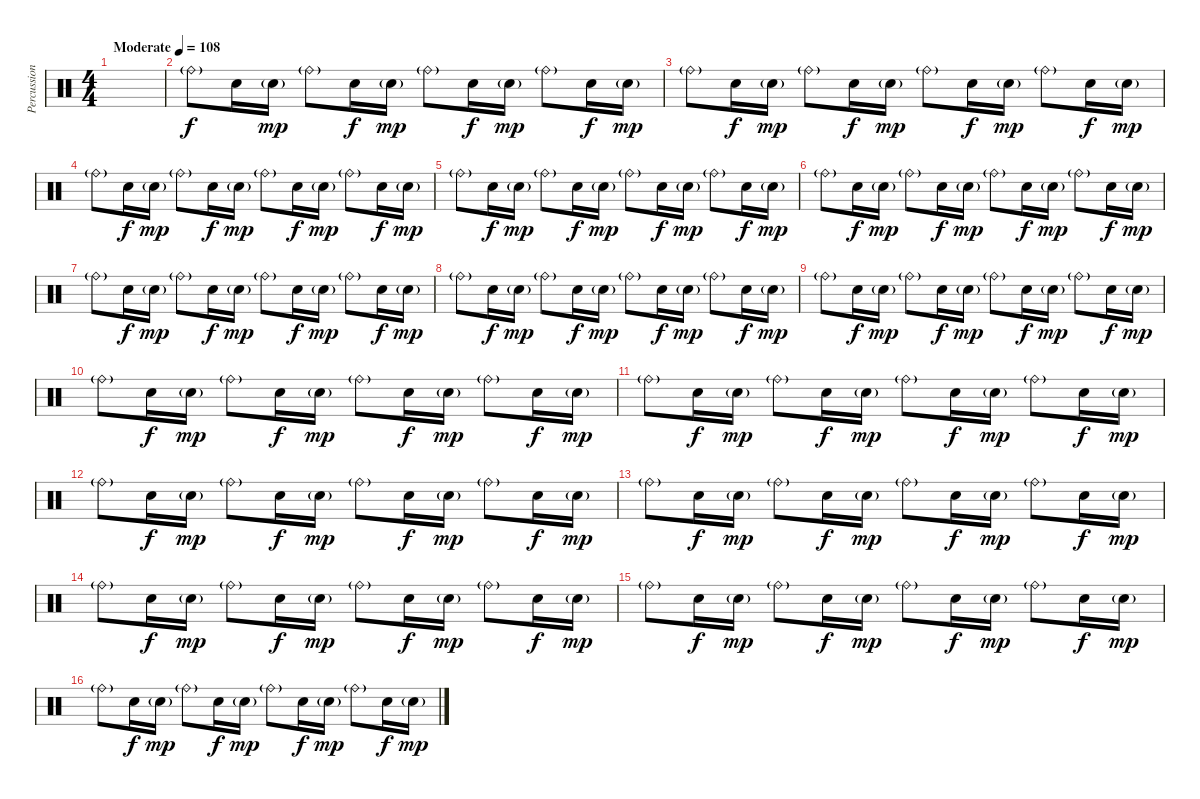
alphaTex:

\track ("Percussioni" "Percussion") {instrument percussion}
\staff {score}
\articulation defaults
\ts (4 4)
\tempo (108 "Moderate")
\clef neutral
\ks c
|
"Ride (bell)"{g}.8 "Snare (hit) 2".16{dy f} "Snare (hit) 2"{g}.16{dy mp} "Ride (bell)"{g}.8 "Snare (hit) 2".16{dy f} "Snare (hit) 2"{g}.16{dy mp} "Ride (bell)"{g}.8 "Snare (hit) 2".16{dy f} "Snare (hit) 2"{g}.16{dy mp} "Ride (bell)"{g}.8 "Snare (hit) 2".16{dy f} "Snare (hit) 2"{g}.16{dy mp} |
"Ride (bell)"{g}.8 "Snare (hit) 2".16{dy f} "Snare (hit) 2"{g}.16{dy mp} "Ride (bell)"{g}.8 "Snare (hit) 2".16{dy f} "Snare (hit) 2"{g}.16{dy mp} "Ride (bell)"{g}.8 "Snare (hit) 2".16{dy f} "Snare (hit) 2"{g}.16{dy mp} "Ride (bell)"{g}.8 "Snare (hit) 2".16{dy f} "Snare (hit) 2"{g}.16{dy mp} |
"Ride (bell)"{g}.8 "Snare (hit) 2".16{dy f} "Snare (hit) 2"{g}.16{dy mp} "Ride (bell)"{g}.8 "Snare (hit) 2".16{dy f} "Snare (hit) 2"{g}.16{dy mp} "Ride (bell)"{g}.8 "Snare (hit) 2".16{dy f} "Snare (hit) 2"{g}.16{dy mp} "Ride (bell)"{g}.8 "Snare (hit) 2".16{dy f} "Snare (hit) 2"{g}.16{dy mp} |
"Ride (bell)"{g}.8 "Snare (hit) 2".16{dy f} "Snare (hit) 2"{g}.16{dy mp} "Ride (bell)"{g}.8 "Snare (hit) 2".16{dy f} "Snare (hit) 2"{g}.16{dy mp} "Ride (bell)"{g}.8 "Snare (hit) 2".16{dy f} "Snare (hit) 2"{g}.16{dy mp} "Ride (bell)"{g}.8 "Snare (hit) 2".16{dy f} "Snare (hit) 2"{g}.16{dy mp} |
"Ride (bell)"{g}.8 "Snare (hit) 2".16{dy f} "Snare (hit) 2"{g}.16{dy mp} "Ride (bell)"{g}.8 "Snare (hit) 2".16{dy f} "Snare (hit) 2"{g}.16{dy mp} "Ride (bell)"{g}.8 "Snare (hit) 2".16{dy f} "Snare (hit) 2"{g}.16{dy mp} "Ride (bell)"{g}.8 "Snare (hit) 2".16{dy f} "Snare (hit) 2"{g}.16{dy mp} |
"Ride (bell)"{g}.8 "Snare (hit) 2".16{dy f} "Snare (hit) 2"{g}.16{dy mp} "Ride (bell)"{g}.8 "Snare (hit) 2".16{dy f} "Snare (hit) 2"{g}.16{dy mp} "Ride (bell)"{g}.8 "Snare (hit) 2".16{dy f} "Snare (hit) 2"{g}.16{dy mp} "Ride (bell)"{g}.8 "Snare (hit) 2".16{dy f} "Snare (hit) 2"{g}.16{dy mp} |
"Ride (bell)"{g}.8 "Snare (hit) 2".16{dy f} "Snare (hit) 2"{g}.16{dy mp} "Ride (bell)"{g}.8 "Snare (hit) 2".16{dy f} "Snare (hit) 2"{g}.16{dy mp} "Ride (bell)"{g}.8 "Snare (hit) 2".16{dy f} "Snare (hit) 2"{g}.16{dy mp} "Ride (bell)"{g}.8 "Snare (hit) 2".16{dy f} "Snare (hit) 2"{g}.16{dy mp} |
"Ride (bell)"{g}.8 "Snare (hit) 2".16{dy f} "Snare (hit) 2"{g}.16{dy mp} "Ride (bell)"{g}.8 "Snare (hit) 2".16{dy f} "Snare (hit) 2"{g}.16{dy mp} "Ride (bell)"{g}.8 "Snare (hit) 2".16{dy f} "Snare (hit) 2"{g}.16{dy mp} "Ride (bell)"{g}.8 "Snare (hit) 2".16{dy f} "Snare (hit) 2"{g}.16{dy mp} |
"Ride (bell)"{g}.8 "Snare (hit) 2".16{dy f} "Snare (hit) 2"{g}.16{dy mp} "Ride (bell)"{g}.8 "Snare (hit) 2".16{dy f} "Snare (hit) 2"{g}.16{dy mp} "Ride (bell)"{g}.8 "Snare (hit) 2".16{dy f} "Snare (hit) 2"{g}.16{dy mp} "Ride (bell)"{g}.8 "Snare (hit) 2".16{dy f} "Snare (hit) 2"{g}.16{dy mp} |
"Ride (bell)"{g}.8 "Snare (hit) 2".16{dy f} "Snare (hit) 2"{g}.16{dy mp} "Ride (bell)"{g}.8 "Snare (hit) 2".16{dy f} "Snare (hit) 2"{g}.16{dy mp} "Ride (bell)"{g}.8 "Snare (hit) 2".16{dy f} "Snare (hit) 2"{g}.16{dy mp} "Ride (bell)"{g}.8 "Snare (hit) 2".16{dy f} "Snare (hit) 2"{g}.16{dy mp} |
"Ride (bell)"{g}.8 "Snare (hit) 2".16{dy f} "Snare (hit) 2"{g}.16{dy mp} "Ride (bell)"{g}.8 "Snare (hit) 2".16{dy f} "Snare (hit) 2"{g}.16{dy mp} "Ride (bell)"{g}.8 "Snare (hit) 2".16{dy f} "Snare (hit) 2"{g}.16{dy mp} "Ride (bell)"{g}.8 "Snare (hit) 2".16{dy f} "Snare (hit) 2"{g}.16{dy mp} |
"Ride (bell)"{g}.8 "Snare (hit) 2".16{dy f} "Snare (hit) 2"{g}.16{dy mp} "Ride (bell)"{g}.8 "Snare (hit) 2".16{dy f} "Snare (hit) 2"{g}.16{dy mp} "Ride (bell)"{g}.8 "Snare (hit) 2".16{dy f} "Snare (hit) 2"{g}.16{dy mp} "Ride (bell)"{g}.8 "Snare (hit) 2".16{dy f} "Snare (hit) 2"{g}.16{dy mp} |
"Ride (bell)"{g}.8 "Snare (hit) 2".16{dy f} "Snare (hit) 2"{g}.16{dy mp} "Ride (bell)"{g}.8 "Snare (hit) 2".16{dy f} "Snare (hit) 2"{g}.16{dy mp} "Ride (bell)"{g}.8 "Snare (hit) 2".16{dy f} "Snare (hit) 2"{g}.16{dy mp} "Ride (bell)"{g}.8 "Snare (hit) 2".16{dy f} "Snare (hit) 2"{g}.16{dy mp} |
"Ride (bell)"{g}.8 "Snare (hit) 2".16{dy f} "Snare (hit) 2"{g}.16{dy mp} "Ride (bell)"{g}.8 "Snare (hit) 2".16{dy f} "Snare (hit) 2"{g}.16{dy mp} "Ride (bell)"{g}.8 "Snare (hit) 2".16{dy f} "Snare (hit) 2"{g}.16{dy mp} "Ride (bell)"{g}.8 "Snare (hit) 2".16{dy f} "Snare (hit) 2"{g}.16{dy mp} |
"Ride (bell)"{g}.8 "Snare (hit) 2".16{dy f} "Snare (hit) 2"{g}.16{dy mp} "Ride (bell)"{g}.8 "Snare (hit) 2".16{dy f} "Snare (hit) 2"{g}.16{dy mp} "Ride (bell)"{g}.8 "Snare (hit) 2".16{dy f} "Snare (hit) 2"{g}.16{dy mp} "Ride (bell)"{g}.8 "Snare (hit) 2".16{dy f} "Snare (hit) 2"{g}.16{dy mp}
